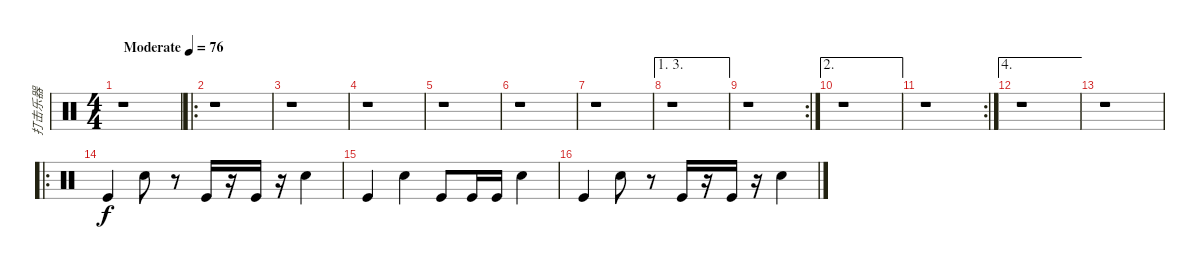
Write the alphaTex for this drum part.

\track ("打击乐器" "打击乐器") {instrument percussion}
\staff {score}
\articulation defaults
\ts (4 4)
\tempo (76 "Moderate")
\clef neutral
\ks c
r.1{dy f} |
\ro
r.1 |
r.1 |
r.1 |
r.1 |
r.1 |
r.1 |
\ae (1 3)
r.1 |
\rc 2
r.1 |
\ae 2
r.1 |
\rc 2
r.1 |
\ae 4
r.1 |
r.1 |
\ro "Kick (hit)".4 "Snare (hit) 2".8
r.8 "Kick (hit)".16 r.16 "Kick (hit)".16 r.16 "Snare (hit) 2".4 |
"Kick (hit)".4 "Snare (hit) 2".4 "Kick (hit)".8 "Kick (hit)".16 "Kick (hit)".16 "Snare (hit) 2".4 |
"Kick (hit)".4 "Snare (hit) 2".8 r.8 "Kick (hit)".16 r.16 "Kick (hit)".16 r.16 "Snare (hit) 2".4
